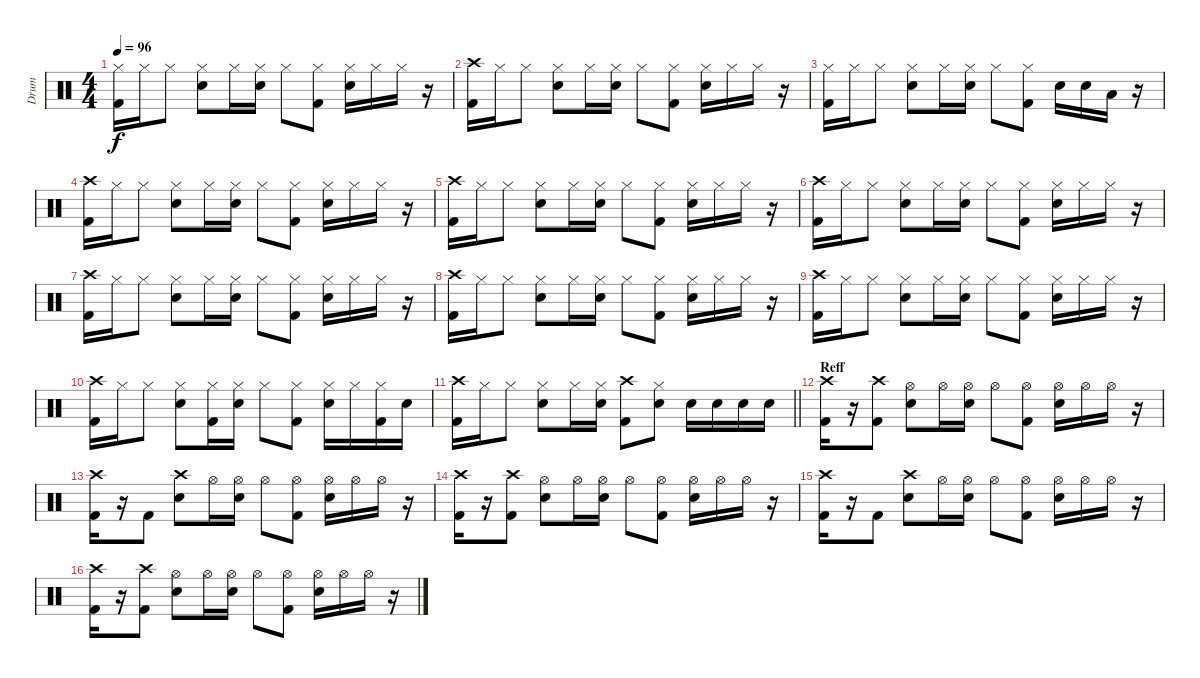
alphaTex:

\track ("Drum" "Drum") {instrument percussion}
\staff {score}
\articulation defaults
\ts (4 4)
\tempo 96
\clef neutral
\ks c
("Hi-Hat (closed)" "Kick (hit) 2").16{dy f} "Hi-Hat (closed)".16 "Hi-Hat (closed)".8 ("Hi-Hat (closed)" "Snare (hit) 2").8 "Hi-Hat (closed)".16 ("Hi-Hat (closed)" "Snare (hit) 2").16 "Hi-Hat (closed)".8 ("Hi-Hat (closed)" "Kick (hit) 2").8 ("Hi-Hat (closed)" "Snare (hit) 2").16 "Hi-Hat (closed)".16 "Hi-Hat (closed)".16 r.16 |
("Crash high (hit)" "Kick (hit) 2").16 "Hi-Hat (closed)".16 "Hi-Hat (closed)".8 ("Hi-Hat (closed)" "Snare (hit) 2").8 "Hi-Hat (closed)".16 ("Hi-Hat (closed)" "Snare (hit) 2").16 "Hi-Hat (closed)".8 ("Hi-Hat (closed)" "Kick (hit) 2").8 ("Hi-Hat (closed)" "Snare (hit) 2").16 "Hi-Hat (closed)".16 "Hi-Hat (closed)".16 r.16 |
("Hi-Hat (closed)" "Kick (hit) 2").16 "Hi-Hat (closed)".16 "Hi-Hat (closed)".8 ("Hi-Hat (closed)" "Snare (hit) 2").8 "Hi-Hat (closed)".16 ("Hi-Hat (closed)" "Snare (hit) 2").16 "Hi-Hat (closed)".8 ("Hi-Hat (closed)" "Kick (hit) 2").8 "Snare (hit) 2".16 "Snare (hit) 2".16 "Low Tom (hit)".16 r.16 |
("Crash high (hit)" "Kick (hit) 2").16 "Hi-Hat (closed)".16 "Hi-Hat (closed)".8 ("Hi-Hat (closed)" "Snare (hit) 2").8 "Hi-Hat (closed)".16 ("Hi-Hat (closed)" "Snare (hit) 2").16 "Hi-Hat (closed)".8 ("Hi-Hat (closed)" "Kick (hit) 2").8 ("Hi-Hat (closed)" "Snare (hit) 2").16 "Hi-Hat (closed)".16 "Hi-Hat (closed)".16 r.16 |
("Crash high (hit)" "Kick (hit) 2").16 "Hi-Hat (closed)".16 "Hi-Hat (closed)".8 ("Hi-Hat (closed)" "Snare (hit) 2").8 "Hi-Hat (closed)".16 ("Hi-Hat (closed)" "Snare (hit) 2").16 "Hi-Hat (closed)".8 ("Hi-Hat (closed)" "Kick (hit) 2").8 ("Hi-Hat (closed)" "Snare (hit) 2").16 "Hi-Hat (closed)".16 "Hi-Hat (closed)".16 r.16 |
("Crash high (hit)" "Kick (hit) 2").16 "Hi-Hat (closed)".16 "Hi-Hat (closed)".8 ("Hi-Hat (closed)" "Snare (hit) 2").8 "Hi-Hat (closed)".16 ("Hi-Hat (closed)" "Snare (hit) 2").16 "Hi-Hat (closed)".8 ("Hi-Hat (closed)" "Kick (hit) 2").8 ("Hi-Hat (closed)" "Snare (hit) 2").16 "Hi-Hat (closed)".16 "Hi-Hat (closed)".16 r.16 |
("Crash high (hit)" "Kick (hit) 2").16 "Hi-Hat (closed)".16 "Hi-Hat (closed)".8 ("Hi-Hat (closed)" "Snare (hit) 2").8 "Hi-Hat (closed)".16 ("Hi-Hat (closed)" "Snare (hit) 2").16 "Hi-Hat (closed)".8 ("Hi-Hat (closed)" "Kick (hit) 2").8 ("Hi-Hat (closed)" "Snare (hit) 2").16 "Hi-Hat (closed)".16 "Hi-Hat (closed)".16 r.16 |
("Crash high (hit)" "Kick (hit) 2").16 "Hi-Hat (closed)".16 "Hi-Hat (closed)".8 ("Hi-Hat (closed)" "Snare (hit) 2").8 "Hi-Hat (closed)".16 ("Hi-Hat (closed)" "Snare (hit) 2").16 "Hi-Hat (closed)".8 ("Hi-Hat (closed)" "Kick (hit) 2").8 ("Hi-Hat (closed)" "Snare (hit) 2").16 "Hi-Hat (closed)".16 "Hi-Hat (closed)".16 r.16 |
("Crash high (hit)" "Kick (hit) 2").16 "Hi-Hat (closed)".16 "Hi-Hat (closed)".8 ("Hi-Hat (closed)" "Snare (hit) 2").8 "Hi-Hat (closed)".16 ("Hi-Hat (closed)" "Snare (hit) 2").16 "Hi-Hat (closed)".8 ("Hi-Hat (closed)" "Kick (hit) 2").8 ("Hi-Hat (closed)" "Snare (hit) 2").16 "Hi-Hat (closed)".16 "Hi-Hat (closed)".16 r.16 |
("Crash high (hit)" "Kick (hit) 2").16 "Hi-Hat (closed)".16 "Hi-Hat (closed)".8 ("Hi-Hat (closed)" "Snare (hit) 2").8 ("Hi-Hat (closed)" "Kick (hit) 2").16 ("Hi-Hat (closed)" "Snare (hit) 2").16 "Hi-Hat (closed)".8 ("Hi-Hat (closed)" "Kick (hit) 2").8 ("Hi-Hat (closed)" "Snare (hit) 2").16 "Hi-Hat (closed)".16 ("Hi-Hat (closed)" "Kick (hit) 2").16 "Snare (hit) 2".16 |
\barLineRight lightlight
("Crash high (hit)" "Kick (hit) 2").16 "Hi-Hat (closed)".16 "Hi-Hat (closed)".8 ("Hi-Hat (closed)" "Snare (hit) 2").8 "Hi-Hat (closed)".16 ("Hi-Hat (closed)" "Snare (hit) 2").16 ("Crash high (hit)" "Kick (hit) 2").8 ("Hi-Hat (closed)" "Snare (hit) 2").8 "Snare (hit) 2".16 "Snare (hit) 2".16 "Snare (hit) 2".16 "Snare (hit) 2".16 |
\section ("" "Reff")
("Crash high (hit)" "Kick (hit) 2").16 r.16 ("Crash high (hit)" "Kick (hit) 2").8 ("Hi-Hat (open)" "Snare (hit) 2").8 "Hi-Hat (open)".16 ("Hi-Hat (open)" "Snare (hit) 2").16 "Hi-Hat (open)".8 ("Hi-Hat (open)" "Kick (hit) 2").8 ("Hi-Hat (open)" "Snare (hit) 2").16 "Hi-Hat (open)".16 "Hi-Hat (open)".16 r.16 |
("Crash high (hit)" "Kick (hit) 2").16 r.16 "Kick (hit) 2".8 ("Crash high (hit)" "Snare (hit) 2").8 "Hi-Hat (open)".16 ("Hi-Hat (open)" "Snare (hit) 2").16 "Hi-Hat (open)".8 ("Hi-Hat (open)" "Kick (hit) 2").8 ("Hi-Hat (open)" "Snare (hit) 2").16 "Hi-Hat (open)".16 "Hi-Hat (open)".16 r.16 |
("Crash high (hit)" "Kick (hit) 2").16 r.16 ("Crash high (hit)" "Kick (hit) 2").8 ("Hi-Hat (open)" "Snare (hit) 2").8 "Hi-Hat (open)".16 ("Hi-Hat (open)" "Snare (hit) 2").16 "Hi-Hat (open)".8 ("Hi-Hat (open)" "Kick (hit) 2").8 ("Hi-Hat (open)" "Snare (hit) 2").16 "Hi-Hat (open)".16 "Hi-Hat (open)".16 r.16 |
("Crash high (hit)" "Kick (hit) 2").16 r.16 "Kick (hit) 2".8 ("Crash high (hit)" "Snare (hit) 2").8 "Hi-Hat (open)".16 ("Hi-Hat (open)" "Snare (hit) 2").16 "Hi-Hat (open)".8 ("Hi-Hat (open)" "Kick (hit) 2").8 ("Hi-Hat (open)" "Snare (hit) 2").16 "Hi-Hat (open)".16 "Hi-Hat (open)".16 r.16 |
("Crash high (hit)" "Kick (hit) 2").16 r.16 ("Crash high (hit)" "Kick (hit) 2").8 ("Hi-Hat (open)" "Snare (hit) 2").8 "Hi-Hat (open)".16 ("Hi-Hat (open)" "Snare (hit) 2").16 "Hi-Hat (open)".8 ("Hi-Hat (open)" "Kick (hit) 2").8 ("Hi-Hat (open)" "Snare (hit) 2").16 "Hi-Hat (open)".16 "Hi-Hat (open)".16 r.16
